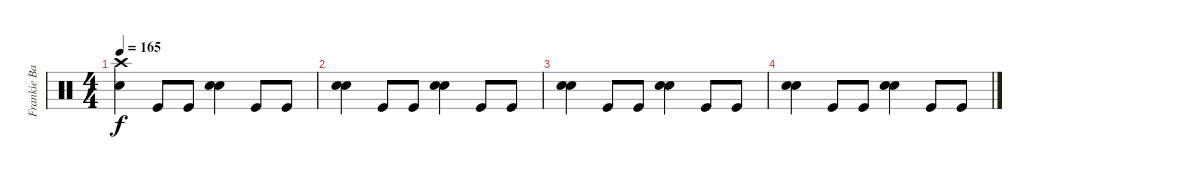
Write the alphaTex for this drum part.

\track ("Frankie Banali/Drums" "Frankie Ba") {instrument percussion}
\staff {score}
\articulation defaults
\ts (4 4)
\tempo 165
\clef neutral
\ks c
("Snare (hit) 2" "Crash high (hit)").4{dy f} "Kick (hit)".8 "Kick (hit)".8 ("Snare (hit) 2" "Snare (hit) 2").4 "Kick (hit)".8 "Kick (hit)".8 |
("Snare (hit) 2" "Snare (hit) 2").4{volume 2} "Kick (hit)".8 "Kick (hit)".8 ("Snare (hit) 2" "Snare (hit) 2").4 "Kick (hit)".8 "Kick (hit)".8 |
("Snare (hit) 2" "Snare (hit) 2").4{volume 1} "Kick (hit)".8 "Kick (hit)".8 ("Snare (hit) 2" "Snare (hit) 2").4 "Kick (hit)".8 "Kick (hit)".8 |
("Snare (hit) 2" "Snare (hit) 2").4{volume 0} "Kick (hit)".8 "Kick (hit)".8 ("Snare (hit) 2" "Snare (hit) 2").4 "Kick (hit)".8 "Kick (hit)".8
